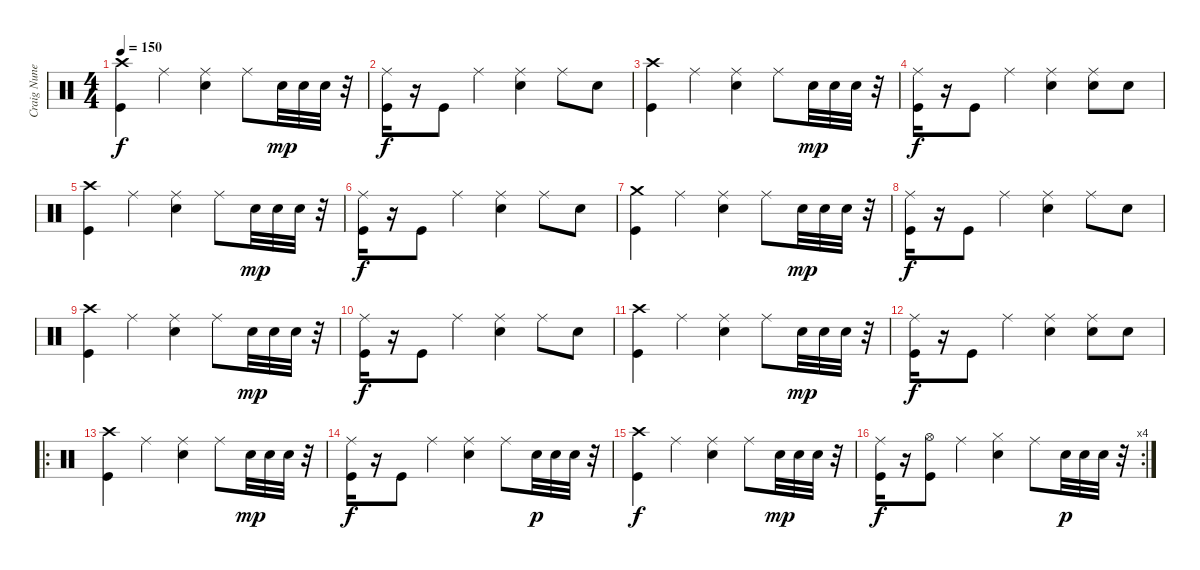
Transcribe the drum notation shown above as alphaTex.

\track ("Craig Nunenmacher (Drums)" "Craig Nune") {instrument percussion}
\staff {score}
\articulation defaults
\ts (4 4)
\tempo 150
\clef neutral
\ks c
("Crash high (hit)" "Kick (hit)").4{dy f} "Ride (middle)".4 ("Ride (middle)" "Snare (hit) 2").4 "Ride (middle)".8 "Snare (hit) 2".32{dy mp} "Snare (hit) 2".32 "Snare (hit) 2".32 r.32 |
("Ride (middle)" "Kick (hit)").16{dy f} r.16 "Kick (hit)".8 "Ride (middle)".4 ("Ride (middle)" "Snare (hit) 2").4 "Ride (middle)".8 "Snare (hit) 2".8 |
("Crash high (hit)" "Kick (hit)").4 "Ride (middle)".4 ("Ride (middle)" "Snare (hit) 2").4 "Ride (middle)".8 "Snare (hit) 2".32{dy mp} "Snare (hit) 2".32 "Snare (hit) 2".32 r.32 |
("Ride (middle)" "Kick (hit)").16{dy f} r.16 "Kick (hit)".8 "Ride (middle)".4 ("Ride (middle)" "Snare (hit) 2").4 ("Ride (middle)" "Snare (hit) 2").8 "Snare (hit) 2".8 |
("Crash high (hit)" "Kick (hit)").4 "Ride (middle)".4 ("Ride (middle)" "Snare (hit) 2").4 "Ride (middle)".8 "Snare (hit) 2".32{dy mp} "Snare (hit) 2".32 "Snare (hit) 2".32 r.32 |
("Ride (middle)" "Kick (hit)").16{dy f} r.16 "Kick (hit)".8 "Ride (middle)".4 ("Ride (middle)" "Snare (hit) 2").4 "Ride (middle)".8 "Snare (hit) 2".8 |
("Crash medium (hit)" "Kick (hit)").4 "Ride (middle)".4 ("Ride (middle)" "Snare (hit) 2").4 "Ride (middle)".8 "Snare (hit) 2".32{dy mp} "Snare (hit) 2".32 "Snare (hit) 2".32 r.32 |
("Ride (middle)" "Kick (hit)").16{dy f} r.16 "Kick (hit)".8 "Ride (middle)".4 ("Ride (middle)" "Snare (hit) 2").4 "Ride (middle)".8 "Snare (hit) 2".8 |
("Crash high (hit)" "Kick (hit)").4 "Ride (middle)".4 ("Ride (middle)" "Snare (hit) 2").4 "Ride (middle)".8 "Snare (hit) 2".32{dy mp} "Snare (hit) 2".32 "Snare (hit) 2".32 r.32 |
("Ride (middle)" "Kick (hit)").16{dy f} r.16 "Kick (hit)".8 "Ride (middle)".4 ("Ride (middle)" "Snare (hit) 2").4 "Ride (middle)".8 "Snare (hit) 2".8 |
("Crash high (hit)" "Kick (hit)").4 "Ride (middle)".4 ("Ride (middle)" "Snare (hit) 2").4 "Ride (middle)".8 "Snare (hit) 2".32{dy mp} "Snare (hit) 2".32 "Snare (hit) 2".32 r.32 |
("Ride (middle)" "Kick (hit)").16{dy f} r.16 "Kick (hit)".8 "Ride (middle)".4 ("Ride (middle)" "Snare (hit) 2").4 ("Ride (middle)" "Snare (hit) 2").8 "Snare (hit) 2".8 |
\ro
("Crash high (hit)" "Kick (hit)").4 "Ride (middle)".4 ("Ride (middle)" "Snare (hit) 2").4 "Ride (middle)".8 "Snare (hit) 2".32{dy mp} "Snare (hit) 2".32 "Snare (hit) 2".32 r.32 |
("Ride (middle)" "Kick (hit)").16{dy f} r.16 "Kick (hit)".8 "Ride (middle)".4 ("Ride (middle)" "Snare (hit) 2").4 "Ride (middle)".8 "Snare (hit) 2".32{dy p} "Snare (hit) 2".32 "Snare (hit) 2".32 r.32 |
("Crash high (hit)" "Kick (hit)").4{dy f} "Ride (middle)".4 ("Ride (middle)" "Snare (hit) 2").4 "Ride (middle)".8 "Snare (hit) 2".32{dy mp} "Snare (hit) 2".32 "Snare (hit) 2".32 r.32 |
\rc 4
("Ride (middle)" "Kick (hit)").16{dy f} r.16 ("Hi-Hat (open)" "Kick (hit)").8 "Ride (middle)".4 ("Hi-Hat (closed)" "Snare (hit) 2").4 "Ride (middle)".8 "Snare (hit) 2".32{dy p} "Snare (hit) 2".32 "Snare (hit) 2".32 r.32
